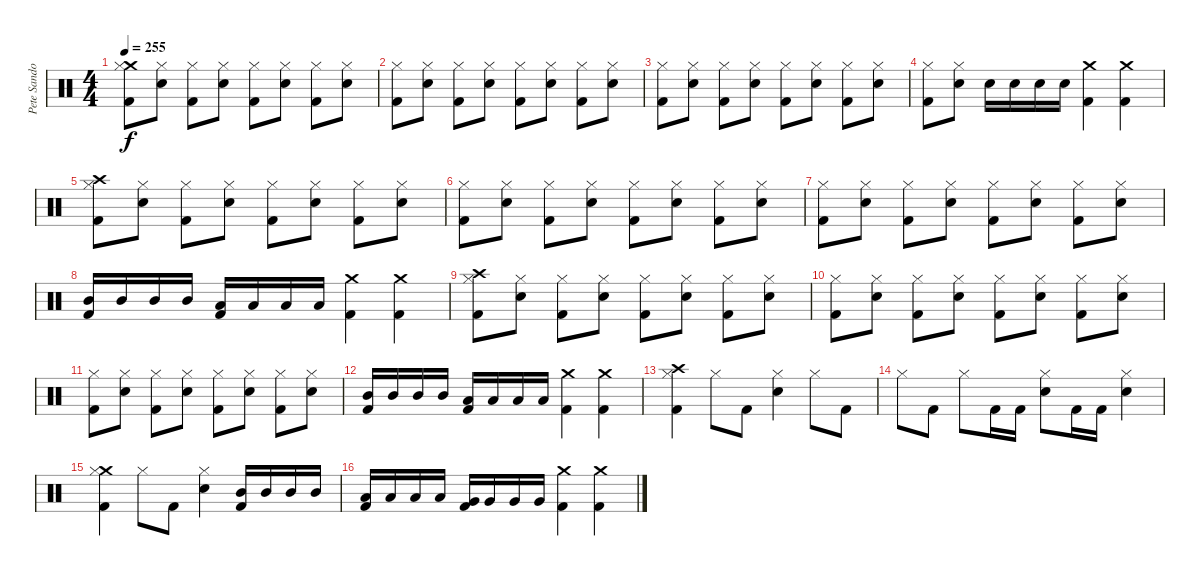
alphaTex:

\track ("Pete Sandoval" "Pete Sando") {instrument percussion}
\staff {score}
\articulation defaults
\ts (4 4)
\tempo 255
\clef neutral
\ks c
("Crash medium (hit)" "Hi-Hat (closed)" "Kick (hit) 2").8{dy f} ("Hi-Hat (closed)" "Electric Snare (hit)").8 ("Hi-Hat (closed)" "Kick (hit) 2").8 ("Hi-Hat (closed)" "Electric Snare (hit)").8 ("Hi-Hat (closed)" "Kick (hit) 2").8 ("Hi-Hat (closed)" "Electric Snare (hit)").8 ("Hi-Hat (closed)" "Kick (hit) 2").8 ("Hi-Hat (closed)" "Electric Snare (hit)").8 |
("Hi-Hat (closed)" "Kick (hit) 2").8 ("Hi-Hat (closed)" "Electric Snare (hit)").8 ("Hi-Hat (closed)" "Kick (hit) 2").8 ("Hi-Hat (closed)" "Electric Snare (hit)").8 ("Hi-Hat (closed)" "Kick (hit) 2").8 ("Hi-Hat (closed)" "Electric Snare (hit)").8 ("Hi-Hat (closed)" "Kick (hit) 2").8 ("Hi-Hat (closed)" "Electric Snare (hit)").8 |
("Hi-Hat (closed)" "Kick (hit) 2").8 ("Hi-Hat (closed)" "Electric Snare (hit)").8 ("Hi-Hat (closed)" "Kick (hit) 2").8 ("Hi-Hat (closed)" "Electric Snare (hit)").8 ("Hi-Hat (closed)" "Kick (hit) 2").8 ("Hi-Hat (closed)" "Electric Snare (hit)").8 ("Hi-Hat (closed)" "Kick (hit) 2").8 ("Hi-Hat (closed)" "Electric Snare (hit)").8 |
("Hi-Hat (closed)" "Kick (hit) 2").8 ("Hi-Hat (closed)" "Electric Snare (hit)").8 "Electric Snare (hit)".16 "Electric Snare (hit)".16 "Electric Snare (hit)".16 "Electric Snare (hit)".16 ("Crash medium (hit)" "Kick (hit) 2").4 ("Crash medium (hit)" "Kick (hit) 2").4 |
("Crash high (hit)" "Hi-Hat (closed)" "Kick (hit) 2").8 ("Hi-Hat (closed)" "Electric Snare (hit)").8 ("Hi-Hat (closed)" "Kick (hit) 2").8 ("Hi-Hat (closed)" "Electric Snare (hit)").8 ("Hi-Hat (closed)" "Kick (hit) 2").8 ("Hi-Hat (closed)" "Electric Snare (hit)").8 ("Hi-Hat (closed)" "Kick (hit) 2").8 ("Hi-Hat (closed)" "Electric Snare (hit)").8 |
("Hi-Hat (closed)" "Kick (hit) 2").8 ("Hi-Hat (closed)" "Electric Snare (hit)").8 ("Hi-Hat (closed)" "Kick (hit) 2").8 ("Hi-Hat (closed)" "Electric Snare (hit)").8 ("Hi-Hat (closed)" "Kick (hit) 2").8 ("Hi-Hat (closed)" "Electric Snare (hit)").8 ("Hi-Hat (closed)" "Kick (hit) 2").8 ("Hi-Hat (closed)" "Electric Snare (hit)").8 |
("Hi-Hat (closed)" "Kick (hit) 2").8 ("Hi-Hat (closed)" "Electric Snare (hit)").8 ("Hi-Hat (closed)" "Kick (hit) 2").8 ("Hi-Hat (closed)" "Electric Snare (hit)").8 ("Hi-Hat (closed)" "Kick (hit) 2").8 ("Hi-Hat (closed)" "Electric Snare (hit)").8 ("Hi-Hat (closed)" "Kick (hit) 2").8 ("Hi-Hat (closed)" "Electric Snare (hit)").8 |
("Kick (hit) 2" "Mid Tom (hit)").16 "Mid Tom (hit)".16 "Mid Tom (hit)".16 "Mid Tom (hit)".16 ("Kick (hit) 2" "Low Tom (hit)").16 "Low Tom (hit)".16 "Low Tom (hit)".16 "Low Tom (hit)".16 ("Crash medium (hit)" "Kick (hit) 2").4 ("Crash medium (hit)" "Kick (hit) 2").4 |
("Crash high (hit)" "Hi-Hat (closed)" "Kick (hit) 2").8 ("Hi-Hat (closed)" "Electric Snare (hit)").8 ("Hi-Hat (closed)" "Kick (hit) 2").8 ("Hi-Hat (closed)" "Electric Snare (hit)").8 ("Hi-Hat (closed)" "Kick (hit) 2").8 ("Hi-Hat (closed)" "Electric Snare (hit)").8 ("Hi-Hat (closed)" "Kick (hit) 2").8 ("Hi-Hat (closed)" "Electric Snare (hit)").8 |
("Hi-Hat (closed)" "Kick (hit) 2").8 ("Hi-Hat (closed)" "Electric Snare (hit)").8 ("Hi-Hat (closed)" "Kick (hit) 2").8 ("Hi-Hat (closed)" "Electric Snare (hit)").8 ("Hi-Hat (closed)" "Kick (hit) 2").8 ("Hi-Hat (closed)" "Electric Snare (hit)").8 ("Hi-Hat (closed)" "Kick (hit) 2").8 ("Hi-Hat (closed)" "Electric Snare (hit)").8 |
("Hi-Hat (closed)" "Kick (hit) 2").8 ("Hi-Hat (closed)" "Electric Snare (hit)").8 ("Hi-Hat (closed)" "Kick (hit) 2").8 ("Hi-Hat (closed)" "Electric Snare (hit)").8 ("Hi-Hat (closed)" "Kick (hit) 2").8 ("Hi-Hat (closed)" "Electric Snare (hit)").8 ("Hi-Hat (closed)" "Kick (hit) 2").8 ("Hi-Hat (closed)" "Electric Snare (hit)").8 |
("Kick (hit) 2" "Mid Tom (hit)").16 "Mid Tom (hit)".16 "Mid Tom (hit)".16 "Mid Tom (hit)".16 ("Kick (hit) 2" "Low Tom (hit)").16 "Low Tom (hit)".16 "Low Tom (hit)".16 "Low Tom (hit)".16 ("Crash medium (hit)" "Kick (hit) 2").4 ("Crash medium (hit)" "Kick (hit) 2").4 |
("Crash high (hit)" "Hi-Hat (closed)" "Kick (hit) 2").4 "Hi-Hat (closed)".8 "Kick (hit) 2".8 ("Hi-Hat (closed)" "Electric Snare (hit)").4 "Hi-Hat (closed)".8 "Kick (hit) 2".8 |
"Hi-Hat (closed)".8 "Kick (hit) 2".8 "Hi-Hat (closed)".8 "Kick (hit) 2".16 "Kick (hit) 2".16 ("Hi-Hat (closed)" "Electric Snare (hit)").8 "Kick (hit) 2".16 "Kick (hit) 2".16 ("Hi-Hat (closed)" "Electric Snare (hit)").4 |
("Crash medium (hit)" "Hi-Hat (closed)" "Kick (hit) 2").4 "Hi-Hat (closed)".8 "Kick (hit) 2".8 ("Hi-Hat (closed)" "Electric Snare (hit)").4 ("Mid Tom (hit)" "Kick (hit) 2").16 "Mid Tom (hit)".16 "Mid Tom (hit)".16 "Mid Tom (hit)".16 |
("Low Tom (hit)" "Kick (hit) 2").16 "Low Tom (hit)".16 "Low Tom (hit)".16 "Low Tom (hit)".16 ("Very Low Tom (hit)" "Kick (hit) 2").16 "Very Low Tom (hit)".16 "Very Low Tom (hit)".16 "Very Low Tom (hit)".16 ("Crash medium (hit)" "Kick (hit) 2").4 ("Crash medium (hit)" "Kick (hit) 2").4
